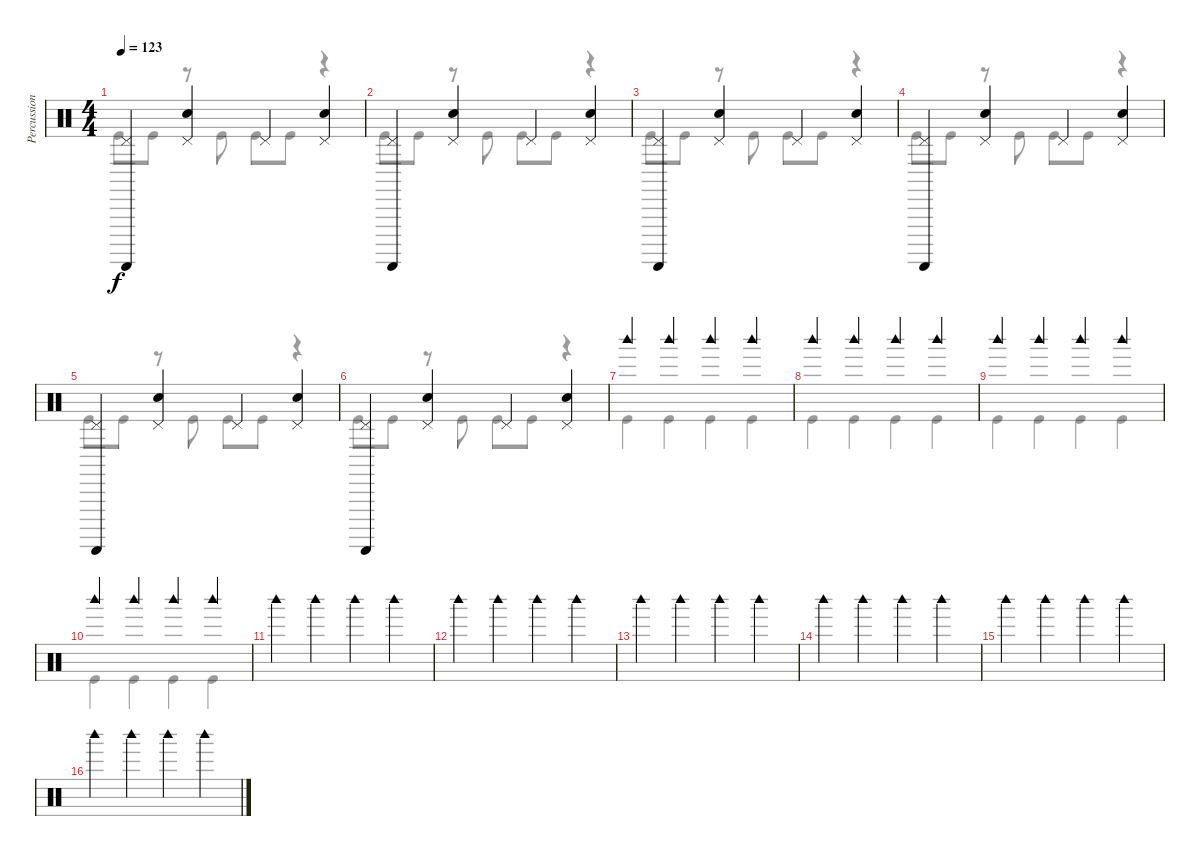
\track ("Percussion" "Percussion") {instrument percussion}
\staff {score}
\articulation defaults
\voice
\ts (4 4)
\tempo 123
\clef neutral
\ks c
("Guiro (scrap-return)" "Pedal Hi-Hat (hit)").4{dy f} ("Electric Snare (hit)" "Pedal Hi-Hat (hit)").4 "Pedal Hi-Hat (hit)".4 ("Electric Snare (hit)" "Pedal Hi-Hat (hit)").4 |
("Guiro (scrap-return)" "Pedal Hi-Hat (hit)").4 ("Electric Snare (hit)" "Pedal Hi-Hat (hit)").4 "Pedal Hi-Hat (hit)".4 ("Electric Snare (hit)" "Pedal Hi-Hat (hit)").4 |
("Guiro (scrap-return)" "Pedal Hi-Hat (hit)").4 ("Electric Snare (hit)" "Pedal Hi-Hat (hit)").4 "Pedal Hi-Hat (hit)".4 ("Electric Snare (hit)" "Pedal Hi-Hat (hit)").4 |
("Guiro (scrap-return)" "Pedal Hi-Hat (hit)").4 ("Electric Snare (hit)" "Pedal Hi-Hat (hit)").4 "Pedal Hi-Hat (hit)".4 ("Electric Snare (hit)" "Pedal Hi-Hat (hit)").4 |
("Guiro (scrap-return)" "Pedal Hi-Hat (hit)").4 ("Electric Snare (hit)" "Pedal Hi-Hat (hit)").4 "Pedal Hi-Hat (hit)".4 ("Electric Snare (hit)" "Pedal Hi-Hat (hit)").4 |
("Guiro (scrap-return)" "Pedal Hi-Hat (hit)").4 ("Electric Snare (hit)" "Pedal Hi-Hat (hit)").4 "Pedal Hi-Hat (hit)".4 ("Electric Snare (hit)" "Pedal Hi-Hat (hit)").4 |
"Woodblock high (hit)".4 "Woodblock high (hit)".4 "Woodblock high (hit)".4 "Woodblock high (hit)".4 |
"Woodblock high (hit)".4 "Woodblock high (hit)".4 "Woodblock high (hit)".4 "Woodblock high (hit)".4 |
"Woodblock high (hit)".4 "Woodblock high (hit)".4 "Woodblock high (hit)".4 "Woodblock high (hit)".4 |
"Woodblock high (hit)".4 "Woodblock high (hit)".4 "Woodblock high (hit)".4 "Woodblock high (hit)".4 |
"Woodblock high (hit)".4 "Woodblock high (hit)".4 "Woodblock high (hit)".4 "Woodblock high (hit)".4 |
"Woodblock high (hit)".4 "Woodblock high (hit)".4 "Woodblock high (hit)".4 "Woodblock high (hit)".4 |
"Woodblock high (hit)".4 "Woodblock high (hit)".4 "Woodblock high (hit)".4 "Woodblock high (hit)".4 |
"Woodblock high (hit)".4 "Woodblock high (hit)".4 "Woodblock high (hit)".4 "Woodblock high (hit)".4 |
"Woodblock high (hit)".4 "Woodblock high (hit)".4 "Woodblock high (hit)".4 "Woodblock high (hit)".4 |
"Woodblock high (hit)".4 "Woodblock high (hit)".4 "Woodblock high (hit)".4 "Woodblock high (hit)".4
\voice
\clef neutral
\ottava regular
\simile none
\ks c "Kick (hit)".8{dy f} "Kick (hit)".8
r.8 "Kick (hit)".8 "Kick (hit)".8 "Kick (hit)".8 r.4 |
"Kick (hit)".8 "Kick (hit)".8 r.8 "Kick (hit)".8 "Kick (hit)".8 "Kick (hit)".8 r.4 |
"Kick (hit)".8 "Kick (hit)".8 r.8 "Kick (hit)".8 "Kick (hit)".8 "Kick (hit)".8 r.4 |
"Kick (hit)".8 "Kick (hit)".8 r.8 "Kick (hit)".8 "Kick (hit)".8 "Kick (hit)".8 r.4 |
"Kick (hit)".8 "Kick (hit)".8 r.8 "Kick (hit)".8 "Kick (hit)".8 "Kick (hit)".8 r.4 |
"Kick (hit)".8 "Kick (hit)".8 r.8 "Kick (hit)".8 "Kick (hit)".8 "Kick (hit)".8 r.4 |
"Kick (hit)".4 "Kick (hit)".4 "Kick (hit)".4 "Kick (hit)".4 |
"Kick (hit)".4 "Kick (hit)".4 "Kick (hit)".4 "Kick (hit)".4 |
"Kick (hit)".4 "Kick (hit)".4 "Kick (hit)".4 "Kick (hit)".4 |
"Kick (hit)".4 "Kick (hit)".4 "Kick (hit)".4 "Kick (hit)".4 |
|
|
|
|
|
